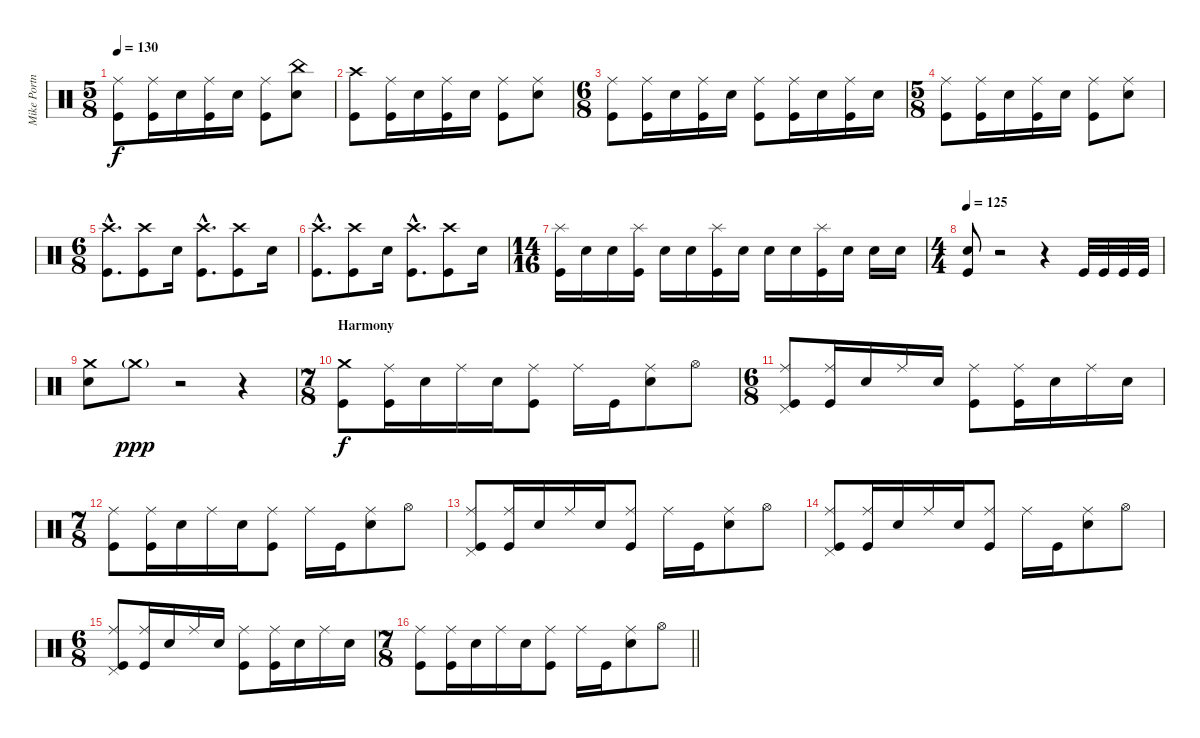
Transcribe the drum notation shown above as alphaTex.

\track ("Mike Portnoy" "Mike Portn") {instrument percussion}
\staff {score}
\articulation defaults
\ts (5 8)
\tempo 130
\clef neutral
\ks c
("Ride (middle)" "Kick (hit)").8{dy f} ("Ride (middle)" "Kick (hit)").16 "Electric Snare (hit)".16 ("Ride (middle)" "Kick (hit)").16 "Electric Snare (hit)".16 ("Ride (middle)" "Kick (hit)").8 ("China (hit)" "Electric Snare (hit)").8 |
("Crash high (hit)" "Kick (hit)").8 ("Ride (middle)" "Kick (hit)").16 "Electric Snare (hit)".16 ("Ride (middle)" "Kick (hit)").16 "Electric Snare (hit)".16 ("Ride (middle)" "Kick (hit)").8 ("Ride (middle)" "Electric Snare (hit)").8 |
\ts (6 8)
("Ride (middle)" "Kick (hit)").8 ("Ride (middle)" "Kick (hit)").16 "Electric Snare (hit)".16 ("Ride (middle)" "Kick (hit)").16 "Electric Snare (hit)".16 ("Ride (middle)" "Kick (hit)").8 ("Ride (middle)" "Kick (hit)").16 "Electric Snare (hit)".16 ("Ride (middle)" "Kick (hit)").16 "Electric Snare (hit)".16 |
\ts (5 8)
("Ride (middle)" "Kick (hit)").8 ("Ride (middle)" "Kick (hit)").16 "Electric Snare (hit)".16 ("Ride (middle)" "Kick (hit)").16 "Electric Snare (hit)".16 ("Ride (middle)" "Kick (hit)").8 ("Ride (middle)" "Electric Snare (hit)").8 |
\ts (6 8)
("Crash high (hit)"{hac} "Kick (hit)"{hac}).8{d} ("Crash high (hit)" "Kick (hit)").8 "Electric Snare (hit)".16 ("Crash high (hit)"{hac} "Kick (hit)"{hac}).8{d} ("Crash high (hit)" "Kick (hit)").8 "Electric Snare (hit)".16 |
("Crash high (hit)"{hac} "Kick (hit)"{hac}).8{d} ("Crash high (hit)" "Kick (hit)").8 "Electric Snare (hit)".16 ("Crash high (hit)"{hac} "Kick (hit)"{hac}).8{d} ("Crash high (hit)" "Kick (hit)").8 "Electric Snare (hit)".16 |
\ts (14 16)
("Splash (hit)" "Kick (hit)").16 "Electric Snare (hit)".16 "Electric Snare (hit)".16 ("Splash (hit)" "Kick (hit)").16 "Electric Snare (hit)".16 "Electric Snare (hit)".16 ("Splash (hit)" "Kick (hit)").16 "Electric Snare (hit)".16 "Electric Snare (hit)".16 "Electric Snare (hit)".16 ("Splash (hit)" "Kick (hit)").16 "Electric Snare (hit)".16 "Electric Snare (hit)".16 "Electric Snare (hit)".16 |
\ts (4 4)
\tempo 125
("Electric Snare (hit)" "Kick (hit)").8 r.2 r.4 "Kick (hit)".32 "Kick (hit)".32 "Kick (hit)".32 "Kick (hit)".32 |
("Crash medium (hit)" "Electric Snare (hit)").8 "Crash medium (hit)"{g}.8{dy ppp} r.2 r.4 |
\ts (7 8)
\section ("" "Harmony")
("Crash medium (hit)" "Kick (hit)").8{dy f} ("Ride (middle)" "Kick (hit)").16 "Electric Snare (hit)".16 "Ride (middle)".16 "Electric Snare (hit)".16 ("Ride (middle)" "Kick (hit)").8 "Ride (middle)".16 "Kick (hit)".16 ("Ride (middle)" "Electric Snare (hit)").8 "Hi-Hat (open)".8 |
\ts (6 8)
("Ride (middle)" "Pedal Hi-Hat (hit)" "Kick (hit)").8 ("Ride (middle)" "Kick (hit)").16 "Electric Snare (hit)".16 "Ride (middle)".16 "Electric Snare (hit)".16 ("Ride (middle)" "Kick (hit)").8 ("Ride (middle)" "Kick (hit)").16 "Electric Snare (hit)".16 "Ride (middle)".16 "Electric Snare (hit)".16 |
\ts (7 8)
("Ride (middle)" "Kick (hit)").8 ("Ride (middle)" "Kick (hit)").16 "Electric Snare (hit)".16 "Ride (middle)".16 "Electric Snare (hit)".16 ("Ride (middle)" "Kick (hit)").8 "Ride (middle)".16 "Kick (hit)".16 ("Ride (middle)" "Electric Snare (hit)").8 "Hi-Hat (open)".8 |
("Ride (middle)" "Pedal Hi-Hat (hit)" "Kick (hit)").8 ("Ride (middle)" "Kick (hit)").16 "Electric Snare (hit)".16 "Ride (middle)".16 "Electric Snare (hit)".16 ("Ride (middle)" "Kick (hit)").8 "Ride (middle)".16 "Kick (hit)".16 ("Ride (middle)" "Electric Snare (hit)").8 "Hi-Hat (open)".8 |
("Ride (middle)" "Pedal Hi-Hat (hit)" "Kick (hit)").8 ("Ride (middle)" "Kick (hit)").16 "Electric Snare (hit)".16 "Ride (middle)".16 "Electric Snare (hit)".16 ("Ride (middle)" "Kick (hit)").8 "Ride (middle)".16 "Kick (hit)".16 ("Ride (middle)" "Electric Snare (hit)").8 "Hi-Hat (open)".8 |
\ts (6 8)
("Ride (middle)" "Pedal Hi-Hat (hit)" "Kick (hit)").8 ("Ride (middle)" "Kick (hit)").16 "Electric Snare (hit)".16 "Ride (middle)".16 "Electric Snare (hit)".16 ("Ride (middle)" "Kick (hit)").8 ("Ride (middle)" "Kick (hit)").16 "Electric Snare (hit)".16 "Ride (middle)".16 "Electric Snare (hit)".16 |
\ts (7 8)
\barLineRight lightlight
("Ride (middle)" "Kick (hit)").8 ("Ride (middle)" "Kick (hit)").16 "Electric Snare (hit)".16 "Ride (middle)".16 "Electric Snare (hit)".16 ("Ride (middle)" "Kick (hit)").8 "Ride (middle)".16 "Kick (hit)".16 ("Ride (middle)" "Electric Snare (hit)").8 "Hi-Hat (open)".8
